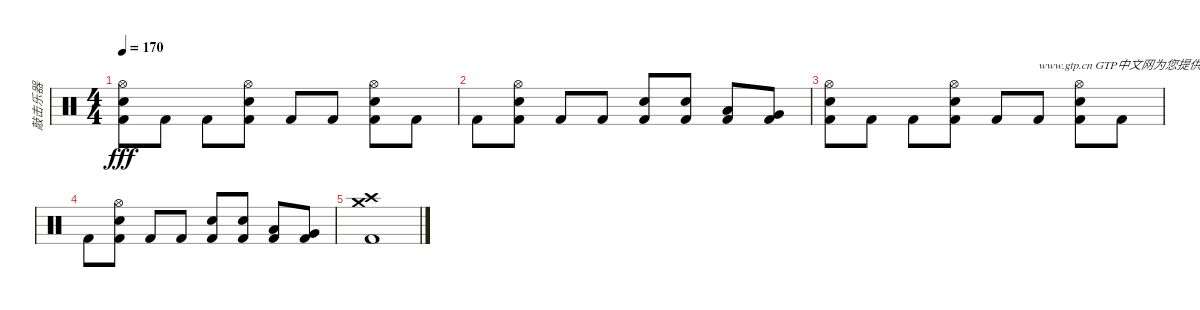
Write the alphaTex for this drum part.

\track ("敲击乐器" "敲击乐器") {instrument percussion}
\staff {score}
\articulation defaults
\ts (4 4)
\tempo 170
\clef neutral
\ks c
("Hi-Hat (open)" "Electric Snare (hit)" "Kick (hit) 2").8{dy fff} "Kick (hit) 2".8 "Kick (hit) 2".8 ("Hi-Hat (open)" "Electric Snare (hit)" "Kick (hit) 2").8 "Kick (hit) 2".8 "Kick (hit) 2".8 ("Hi-Hat (open)" "Electric Snare (hit)" "Kick (hit) 2").8 "Kick (hit) 2".8 |
"Kick (hit) 2".8 ("Hi-Hat (open)" "Electric Snare (hit)" "Kick (hit) 2").8 "Kick (hit) 2".8 "Kick (hit) 2".8 ("Electric Snare (hit)" "Kick (hit) 2").8 ("Electric Snare (hit)" "Kick (hit) 2").8 ("Low Tom (hit)" "Kick (hit) 2").8 ("Very Low Tom (hit)" "Kick (hit) 2").8 |
("Hi-Hat (open)" "Electric Snare (hit)" "Kick (hit) 2").8 "Kick (hit) 2".8 "Kick (hit) 2".8 ("Hi-Hat (open)" "Electric Snare (hit)" "Kick (hit) 2").8 "Kick (hit) 2".8 "Kick (hit) 2".8{txt "www.gtp.cn GTP中文网为您提供优秀的谱子"} ("Hi-Hat (open)" "Electric Snare (hit)" "Kick (hit) 2").8 "Kick (hit) 2".8 |
"Kick (hit) 2".8 ("Hi-Hat (open)" "Electric Snare (hit)" "Kick (hit) 2").8 "Kick (hit) 2".8 "Kick (hit) 2".8 ("Electric Snare (hit)" "Kick (hit) 2").8 ("Electric Snare (hit)" "Kick (hit) 2").8 ("Low Tom (hit)" "Kick (hit) 2").8 ("Very Low Tom (hit)" "Kick (hit) 2").8 |
("Crash high (hit)" "Crash medium (hit)" "Kick (hit) 2").1
